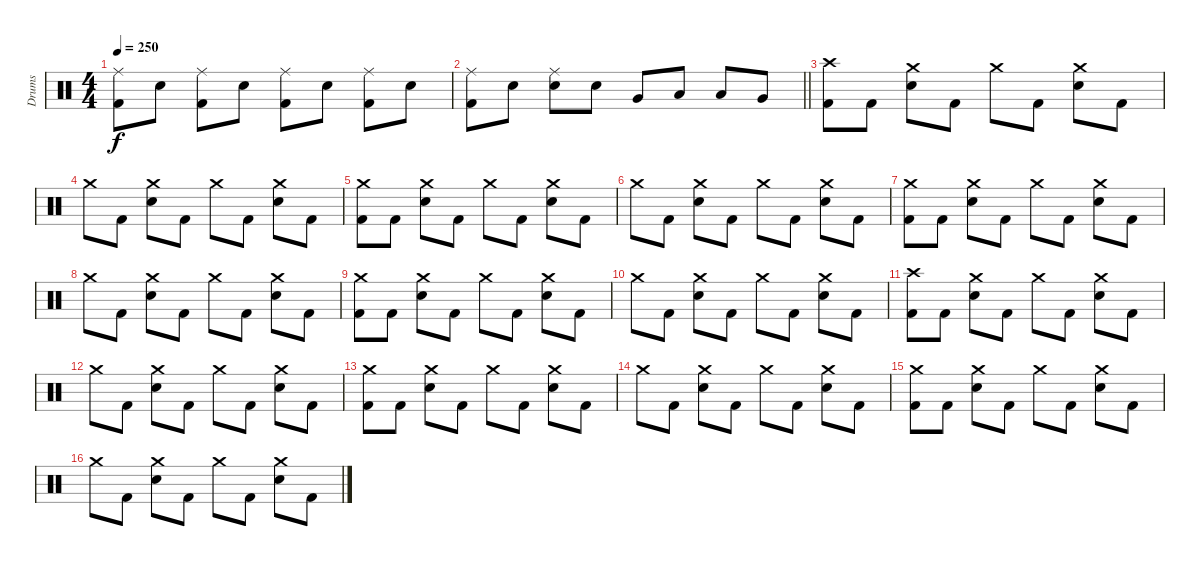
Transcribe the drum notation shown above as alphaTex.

\track ("Drums" "Drums") {instrument percussion}
\staff {score}
\articulation defaults
\ts (4 4)
\tempo 250
\clef neutral
\ks c
("Ride (middle)" "Kick (hit) 2").8{dy f} "Electric Snare (hit)".8 ("Ride (middle)" "Kick (hit) 2").8 "Electric Snare (hit)".8 ("Ride (middle)" "Kick (hit) 2").8 "Electric Snare (hit)".8 ("Ride (middle)" "Kick (hit) 2").8 "Electric Snare (hit)".8 |
\barLineRight lightlight
("Ride (middle)" "Kick (hit) 2").8 "Electric Snare (hit)".8 ("Ride (middle)" "Electric Snare (hit)").8 "Electric Snare (hit)".8 "Very Low Tom (hit)".8 "Low Floor Tom (hit)".8 "Low Tom (hit)".8 "Very Low Tom (hit)".8 |
("Crash high (hit)" "Kick (hit) 2").8 "Kick (hit) 2".8 ("Crash medium (hit)" "Electric Snare (hit)").8 "Kick (hit) 2".8 "Crash medium (hit)".8 "Kick (hit) 2".8 ("Crash medium (hit)" "Electric Snare (hit)").8 "Kick (hit) 2".8 |
"Crash medium (hit)".8 "Kick (hit) 2".8 ("Crash medium (hit)" "Electric Snare (hit)").8 "Kick (hit) 2".8 "Crash medium (hit)".8 "Kick (hit) 2".8 ("Crash medium (hit)" "Electric Snare (hit)").8 "Kick (hit) 2".8 |
("Crash medium (hit)" "Kick (hit) 2").8 "Kick (hit) 2".8 ("Crash medium (hit)" "Electric Snare (hit)").8 "Kick (hit) 2".8 "Crash medium (hit)".8 "Kick (hit) 2".8 ("Crash medium (hit)" "Electric Snare (hit)").8 "Kick (hit) 2".8 |
"Crash medium (hit)".8 "Kick (hit) 2".8 ("Crash medium (hit)" "Electric Snare (hit)").8 "Kick (hit) 2".8 "Crash medium (hit)".8 "Kick (hit) 2".8 ("Crash medium (hit)" "Electric Snare (hit)").8 "Kick (hit) 2".8 |
("Crash medium (hit)" "Kick (hit) 2").8 "Kick (hit) 2".8 ("Crash medium (hit)" "Electric Snare (hit)").8 "Kick (hit) 2".8 "Crash medium (hit)".8 "Kick (hit) 2".8 ("Crash medium (hit)" "Electric Snare (hit)").8 "Kick (hit) 2".8 |
"Crash medium (hit)".8 "Kick (hit) 2".8 ("Crash medium (hit)" "Electric Snare (hit)").8 "Kick (hit) 2".8 "Crash medium (hit)".8 "Kick (hit) 2".8 ("Crash medium (hit)" "Electric Snare (hit)").8 "Kick (hit) 2".8 |
("Crash medium (hit)" "Kick (hit) 2").8 "Kick (hit) 2".8 ("Crash medium (hit)" "Electric Snare (hit)").8 "Kick (hit) 2".8 "Crash medium (hit)".8 "Kick (hit) 2".8 ("Crash medium (hit)" "Electric Snare (hit)").8 "Kick (hit) 2".8 |
"Crash medium (hit)".8 "Kick (hit) 2".8 ("Crash medium (hit)" "Electric Snare (hit)").8 "Kick (hit) 2".8 "Crash medium (hit)".8 "Kick (hit) 2".8 ("Crash medium (hit)" "Electric Snare (hit)").8 "Kick (hit) 2".8 |
("Crash high (hit)" "Kick (hit) 2").8 "Kick (hit) 2".8 ("Crash medium (hit)" "Electric Snare (hit)").8 "Kick (hit) 2".8 "Crash medium (hit)".8 "Kick (hit) 2".8 ("Crash medium (hit)" "Electric Snare (hit)").8 "Kick (hit) 2".8 |
"Crash medium (hit)".8 "Kick (hit) 2".8 ("Crash medium (hit)" "Electric Snare (hit)").8 "Kick (hit) 2".8 "Crash medium (hit)".8 "Kick (hit) 2".8 ("Crash medium (hit)" "Electric Snare (hit)").8 "Kick (hit) 2".8 |
("Crash medium (hit)" "Kick (hit) 2").8 "Kick (hit) 2".8 ("Crash medium (hit)" "Electric Snare (hit)").8 "Kick (hit) 2".8 "Crash medium (hit)".8 "Kick (hit) 2".8 ("Crash medium (hit)" "Electric Snare (hit)").8 "Kick (hit) 2".8 |
"Crash medium (hit)".8 "Kick (hit) 2".8 ("Crash medium (hit)" "Electric Snare (hit)").8 "Kick (hit) 2".8 "Crash medium (hit)".8 "Kick (hit) 2".8 ("Crash medium (hit)" "Electric Snare (hit)").8 "Kick (hit) 2".8 |
("Crash medium (hit)" "Kick (hit) 2").8 "Kick (hit) 2".8 ("Crash medium (hit)" "Electric Snare (hit)").8 "Kick (hit) 2".8 "Crash medium (hit)".8 "Kick (hit) 2".8 ("Crash medium (hit)" "Electric Snare (hit)").8 "Kick (hit) 2".8 |
"Crash medium (hit)".8 "Kick (hit) 2".8 ("Crash medium (hit)" "Electric Snare (hit)").8 "Kick (hit) 2".8 "Crash medium (hit)".8 "Kick (hit) 2".8 ("Crash medium (hit)" "Electric Snare (hit)").8 "Kick (hit) 2".8
